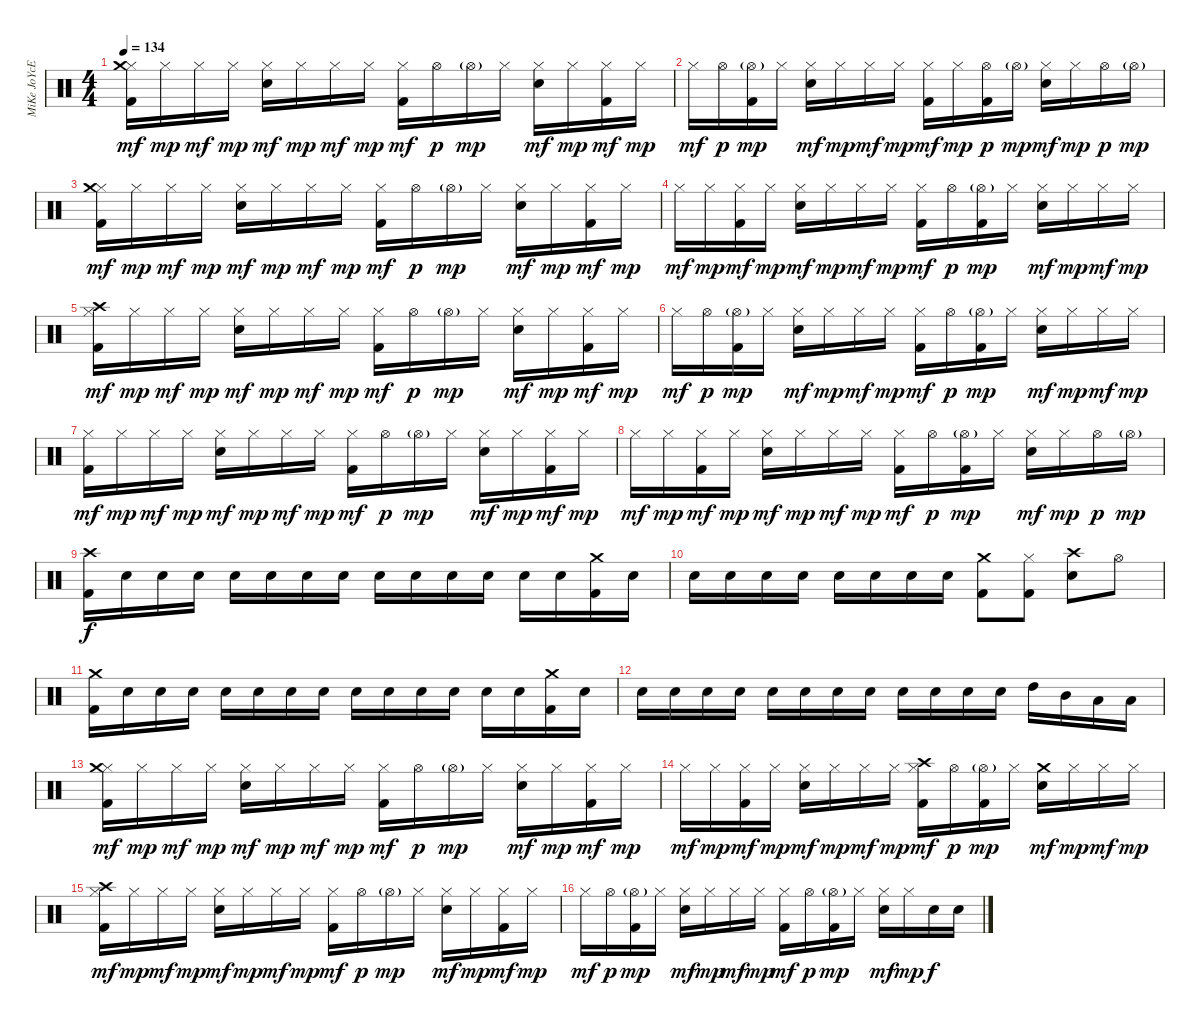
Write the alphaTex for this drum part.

\track ("MiKe JoYcE" "MiKe JoYcE") {instrument percussion}
\staff {score}
\articulation defaults
\ts (4 4)
\tempo 134
\clef neutral
\ks c
("Hi-Hat (closed)" "Crash medium (hit)" "Kick (hit) 2").16{dy mf} "Hi-Hat (closed)".16{dy mp} "Hi-Hat (closed)".16{dy mf} "Hi-Hat (closed)".16{dy mp} ("Hi-Hat (closed)" "Electric Snare (hit)").16{dy mf} "Hi-Hat (closed)".16{dy mp} "Hi-Hat (closed)".16{dy mf} "Hi-Hat (closed)".16{dy mp} ("Hi-Hat (closed)" "Kick (hit) 2").16{dy mf} "Hi-Hat (open)".16{dy p} "Hi-Hat (open)"{g}.16{dy mp} "Hi-Hat (closed)".16 ("Hi-Hat (closed)" "Electric Snare (hit)").16{dy mf} "Hi-Hat (closed)".16{dy mp} ("Hi-Hat (closed)" "Kick (hit) 2").16{dy mf} "Hi-Hat (closed)".16{dy mp} |
"Hi-Hat (closed)".16{dy mf} "Hi-Hat (open)".16{dy p} ("Hi-Hat (open)"{g} "Kick (hit) 2").16{dy mp} "Hi-Hat (closed)".16 ("Hi-Hat (closed)" "Electric Snare (hit)").16{dy mf} "Hi-Hat (closed)".16{dy mp} "Hi-Hat (closed)".16{dy mf} "Hi-Hat (closed)".16{dy mp} ("Hi-Hat (closed)" "Kick (hit) 2").16{dy mf} "Hi-Hat (closed)".16{dy mp} ("Hi-Hat (open)" "Kick (hit) 2").16{dy p} "Hi-Hat (open)"{g}.16{dy mp} ("Hi-Hat (closed)" "Electric Snare (hit)").16{dy mf} "Hi-Hat (closed)".16{dy mp} "Hi-Hat (open)".16{dy p} "Hi-Hat (open)"{g}.16{dy mp} |
("Hi-Hat (closed)" "Crash medium (hit)" "Kick (hit) 2").16{dy mf} "Hi-Hat (closed)".16{dy mp} "Hi-Hat (closed)".16{dy mf} "Hi-Hat (closed)".16{dy mp} ("Hi-Hat (closed)" "Electric Snare (hit)").16{dy mf} "Hi-Hat (closed)".16{dy mp} "Hi-Hat (closed)".16{dy mf} "Hi-Hat (closed)".16{dy mp} ("Hi-Hat (closed)" "Kick (hit) 2").16{dy mf} "Hi-Hat (open)".16{dy p} "Hi-Hat (open)"{g}.16{dy mp} "Hi-Hat (closed)".16 ("Hi-Hat (closed)" "Electric Snare (hit)").16{dy mf} "Hi-Hat (closed)".16{dy mp} ("Hi-Hat (closed)" "Kick (hit) 2").16{dy mf} "Hi-Hat (closed)".16{dy mp} |
"Hi-Hat (closed)".16{dy mf} "Hi-Hat (closed)".16{dy mp} ("Hi-Hat (closed)" "Kick (hit) 2").16{dy mf} "Hi-Hat (closed)".16{dy mp} ("Hi-Hat (closed)" "Electric Snare (hit)").16{dy mf} "Hi-Hat (closed)".16{dy mp} "Hi-Hat (closed)".16{dy mf} "Hi-Hat (closed)".16{dy mp} ("Hi-Hat (closed)" "Kick (hit) 2").16{dy mf} "Hi-Hat (open)".16{dy p} ("Hi-Hat (open)"{g} "Kick (hit) 2").16{dy mp} "Hi-Hat (closed)".16 ("Hi-Hat (closed)" "Electric Snare (hit)").16{dy mf} "Hi-Hat (closed)".16{dy mp} "Hi-Hat (closed)".16{dy mf} "Hi-Hat (closed)".16{dy mp} |
("Hi-Hat (closed)" "Crash high (hit)" "Kick (hit) 2").16{dy mf} "Hi-Hat (closed)".16{dy mp} "Hi-Hat (closed)".16{dy mf} "Hi-Hat (closed)".16{dy mp} ("Hi-Hat (closed)" "Electric Snare (hit)").16{dy mf} "Hi-Hat (closed)".16{dy mp} "Hi-Hat (closed)".16{dy mf} "Hi-Hat (closed)".16{dy mp} ("Hi-Hat (closed)" "Kick (hit) 2").16{dy mf} "Hi-Hat (open)".16{dy p} "Hi-Hat (open)"{g}.16{dy mp} "Hi-Hat (closed)".16 ("Hi-Hat (closed)" "Electric Snare (hit)").16{dy mf} "Hi-Hat (closed)".16{dy mp} ("Hi-Hat (closed)" "Kick (hit) 2").16{dy mf} "Hi-Hat (closed)".16{dy mp} |
"Hi-Hat (closed)".16{dy mf} "Hi-Hat (open)".16{dy p} ("Hi-Hat (open)"{g} "Kick (hit) 2").16{dy mp} "Hi-Hat (closed)".16 ("Hi-Hat (closed)" "Electric Snare (hit)").16{dy mf} "Hi-Hat (closed)".16{dy mp} "Hi-Hat (closed)".16{dy mf} "Hi-Hat (closed)".16{dy mp} ("Hi-Hat (closed)" "Kick (hit) 2").16{dy mf} "Hi-Hat (open)".16{dy p} ("Hi-Hat (open)"{g} "Kick (hit) 2").16{dy mp} "Hi-Hat (closed)".16 ("Hi-Hat (closed)" "Electric Snare (hit)").16{dy mf} "Hi-Hat (closed)".16{dy mp} "Hi-Hat (closed)".16{dy mf} "Hi-Hat (closed)".16{dy mp} |
("Hi-Hat (closed)" "Kick (hit) 2").16{dy mf} "Hi-Hat (closed)".16{dy mp} "Hi-Hat (closed)".16{dy mf} "Hi-Hat (closed)".16{dy mp} ("Hi-Hat (closed)" "Electric Snare (hit)").16{dy mf} "Hi-Hat (closed)".16{dy mp} "Hi-Hat (closed)".16{dy mf} "Hi-Hat (closed)".16{dy mp} ("Hi-Hat (closed)" "Kick (hit) 2").16{dy mf} "Hi-Hat (open)".16{dy p} "Hi-Hat (open)"{g}.16{dy mp} "Hi-Hat (closed)".16 ("Hi-Hat (closed)" "Electric Snare (hit)").16{dy mf} "Hi-Hat (closed)".16{dy mp} ("Hi-Hat (closed)" "Kick (hit) 2").16{dy mf} "Hi-Hat (closed)".16{dy mp} |
"Hi-Hat (closed)".16{dy mf} "Hi-Hat (closed)".16{dy mp} ("Hi-Hat (closed)" "Kick (hit) 2").16{dy mf} "Hi-Hat (closed)".16{dy mp} ("Hi-Hat (closed)" "Electric Snare (hit)").16{dy mf} "Hi-Hat (closed)".16{dy mp} "Hi-Hat (closed)".16{dy mf} "Hi-Hat (closed)".16{dy mp} ("Hi-Hat (closed)" "Kick (hit) 2").16{dy mf} "Hi-Hat (open)".16{dy p} ("Hi-Hat (open)"{g} "Kick (hit) 2").16{dy mp} "Hi-Hat (closed)".16 ("Hi-Hat (closed)" "Electric Snare (hit)").16{dy mf} "Hi-Hat (closed)".16{dy mp} "Hi-Hat (open)".16{dy p} "Hi-Hat (open)"{g}.16{dy mp} |
("Crash high (hit)" "Kick (hit) 2").16{dy f} "Electric Snare (hit)".16 "Electric Snare (hit)".16 "Electric Snare (hit)".16 "Electric Snare (hit)".16 "Electric Snare (hit)".16 "Electric Snare (hit)".16 "Electric Snare (hit)".16 "Electric Snare (hit)".16 "Electric Snare (hit)".16 "Electric Snare (hit)".16 "Electric Snare (hit)".16 "Electric Snare (hit)".16 "Electric Snare (hit)".16 ("Crash medium (hit)" "Kick (hit) 2").16 "Electric Snare (hit)".16 |
"Electric Snare (hit)".16 "Electric Snare (hit)".16 "Electric Snare (hit)".16 "Electric Snare (hit)".16 "Electric Snare (hit)".16 "Electric Snare (hit)".16 "Electric Snare (hit)".16 "Electric Snare (hit)".16 ("Crash medium (hit)" "Kick (hit) 2").8 ("Hi-Hat (closed)" "Kick (hit) 2").8 ("Crash high (hit)" "Electric Snare (hit)").8 "Hi-Hat (open)".8 |
("Crash medium (hit)" "Kick (hit) 2").16 "Electric Snare (hit)".16 "Electric Snare (hit)".16 "Electric Snare (hit)".16 "Electric Snare (hit)".16 "Electric Snare (hit)".16 "Electric Snare (hit)".16 "Electric Snare (hit)".16 "Electric Snare (hit)".16 "Electric Snare (hit)".16 "Electric Snare (hit)".16 "Electric Snare (hit)".16 "Electric Snare (hit)".16 "Electric Snare (hit)".16 ("Crash medium (hit)" "Kick (hit) 2").16 "Electric Snare (hit)".16 |
"Electric Snare (hit)".16 "Electric Snare (hit)".16 "Electric Snare (hit)".16 "Electric Snare (hit)".16 "Electric Snare (hit)".16 "Electric Snare (hit)".16 "Electric Snare (hit)".16 "Electric Snare (hit)".16 "Electric Snare (hit)".16 "Electric Snare (hit)".16 "Electric Snare (hit)".16 "Electric Snare (hit)".16 "High Tom (hit)".16 "Mid Tom (hit)".16 "Low Tom (hit)".16 "Low Floor Tom (hit)".16 |
("Hi-Hat (closed)" "Crash medium (hit)" "Kick (hit) 2").16{dy mf} "Hi-Hat (closed)".16{dy mp} "Hi-Hat (closed)".16{dy mf} "Hi-Hat (closed)".16{dy mp} ("Hi-Hat (closed)" "Electric Snare (hit)").16{dy mf} "Hi-Hat (closed)".16{dy mp} "Hi-Hat (closed)".16{dy mf} "Hi-Hat (closed)".16{dy mp} ("Hi-Hat (closed)" "Kick (hit) 2").16{dy mf} "Hi-Hat (open)".16{dy p} "Hi-Hat (open)"{g}.16{dy mp} "Hi-Hat (closed)".16 ("Hi-Hat (closed)" "Electric Snare (hit)").16{dy mf} "Hi-Hat (closed)".16{dy mp} ("Hi-Hat (closed)" "Kick (hit) 2").16{dy mf} "Hi-Hat (closed)".16{dy mp} |
"Hi-Hat (closed)".16{dy mf} "Hi-Hat (closed)".16{dy mp} ("Hi-Hat (closed)" "Kick (hit) 2").16{dy mf} "Hi-Hat (closed)".16{dy mp} ("Hi-Hat (closed)" "Electric Snare (hit)").16{dy mf} "Hi-Hat (closed)".16{dy mp} "Hi-Hat (closed)".16{dy mf} "Hi-Hat (closed)".16{dy mp} ("Hi-Hat (closed)" "Crash high (hit)" "Kick (hit) 2").16{dy mf} "Hi-Hat (open)".16{dy p} ("Hi-Hat (open)"{g} "Kick (hit) 2").16{dy mp} "Hi-Hat (closed)".16 ("Crash medium (hit)" "Electric Snare (hit)").16{dy mf} "Hi-Hat (closed)".16{dy mp} "Hi-Hat (closed)".16{dy mf} "Hi-Hat (closed)".16{dy mp} |
("Hi-Hat (closed)" "Crash high (hit)" "Kick (hit) 2").16{dy mf} "Hi-Hat (closed)".16{dy mp} "Hi-Hat (closed)".16{dy mf} "Hi-Hat (closed)".16{dy mp} ("Hi-Hat (closed)" "Electric Snare (hit)").16{dy mf} "Hi-Hat (closed)".16{dy mp} "Hi-Hat (closed)".16{dy mf} "Hi-Hat (closed)".16{dy mp} ("Hi-Hat (closed)" "Kick (hit) 2").16{dy mf} "Hi-Hat (open)".16{dy p} "Hi-Hat (open)"{g}.16{dy mp} "Hi-Hat (closed)".16 ("Hi-Hat (closed)" "Electric Snare (hit)").16{dy mf} "Hi-Hat (closed)".16{dy mp} ("Hi-Hat (closed)" "Kick (hit) 2").16{dy mf} "Hi-Hat (closed)".16{dy mp} |
"Hi-Hat (closed)".16{dy mf} "Hi-Hat (open)".16{dy p} ("Hi-Hat (open)"{g} "Kick (hit) 2").16{dy mp} "Hi-Hat (closed)".16 ("Hi-Hat (closed)" "Electric Snare (hit)").16{dy mf} "Hi-Hat (closed)".16{dy mp} "Hi-Hat (closed)".16{dy mf} "Hi-Hat (closed)".16{dy mp} ("Hi-Hat (closed)" "Kick (hit) 2").16{dy mf} "Hi-Hat (open)".16{dy p} ("Hi-Hat (open)"{g} "Kick (hit) 2").16{dy mp} "Hi-Hat (closed)".16 ("Hi-Hat (closed)" "Electric Snare (hit)").16{dy mf} "Hi-Hat (closed)".16{dy mp} "Electric Snare (hit)".16{dy f} "Electric Snare (hit)".16
